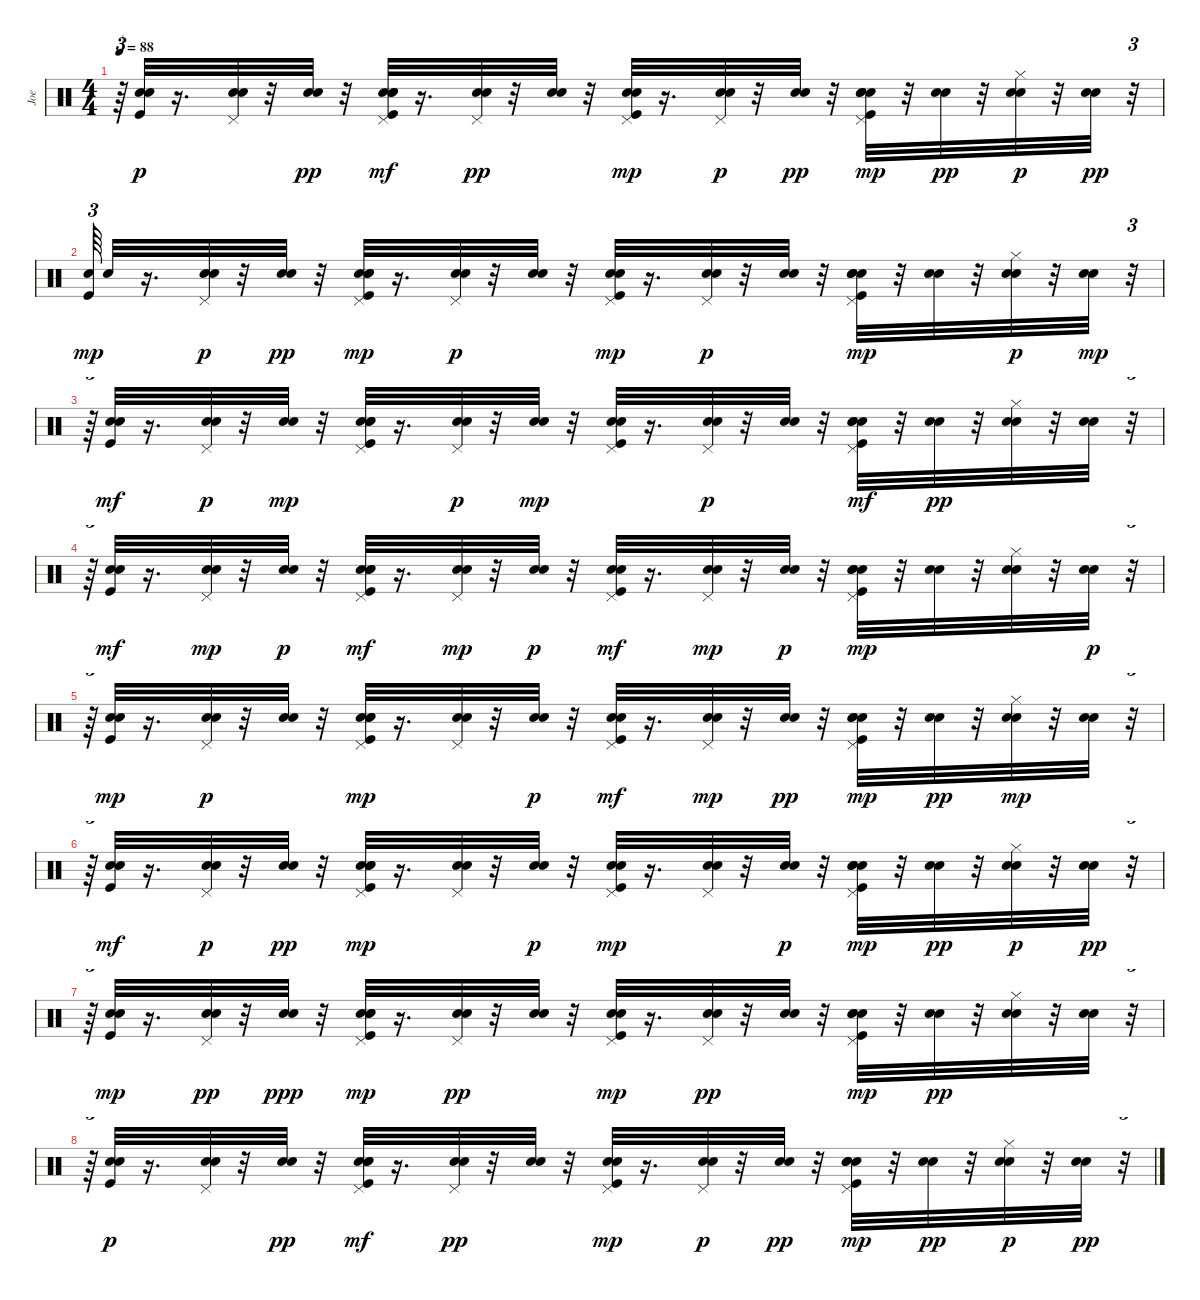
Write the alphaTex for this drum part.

\track ("Joe" "Joe") {instrument percussion}
\staff {score}
\articulation defaults
\ts (4 4)
\tempo 88
\clef neutral
\ks c
r.64{tu (3 2) dy pp} ("Kick (hit)" "Snare (hit) 2" "Snare (hit) 2").32{dy p} r.16{d} ("Pedal Hi-Hat (hit)" "Snare (hit) 2" "Snare (hit) 2").32 r.32 ("Snare (hit) 2" "Snare (hit) 2").32{dy pp} r.32 ("Pedal Hi-Hat (hit)" "Kick (hit)" "Electric Snare (hit)" "Snare (hit) 2" "Snare (hit) 2").32{dy mf} r.16{d} ("Pedal Hi-Hat (hit)" "Snare (hit) 2" "Snare (hit) 2").32{dy pp} r.32 ("Snare (hit) 2" "Snare (hit) 2").32 r.32 ("Kick (hit)" "Pedal Hi-Hat (hit)" "Snare (hit) 2" "Snare (hit) 2").32{dy mp} r.16{d} ("Pedal Hi-Hat (hit)" "Snare (hit) 2" "Snare (hit) 2").32{dy p} r.32 ("Snare (hit) 2" "Snare (hit) 2").32{dy pp} r.32 ("Kick (hit)" "Electric Snare (hit)" "Pedal Hi-Hat (hit)" "Snare (hit) 2" "Snare (hit) 2").32{dy mp} r.32 ("Snare (hit) 2" "Snare (hit) 2").32{dy pp} r.32 ("Hi-Hat (closed)" "Snare (hit) 2" "Snare (hit) 2").32{dy p} r.32 ("Snare (hit) 2" "Snare (hit) 2").32{dy pp} r.32{tu (3 2)} |
("Snare (hit) 2" "Kick (hit)").64{tu (3 2) dy mp} "Snare (hit) 2".32 r.16{d} ("Pedal Hi-Hat (hit)" "Snare (hit) 2" "Snare (hit) 2").32{dy p} r.32 ("Snare (hit) 2" "Snare (hit) 2").32{dy pp} r.32 ("Pedal Hi-Hat (hit)" "Kick (hit)" "Electric Snare (hit)" "Snare (hit) 2" "Snare (hit) 2").32{dy mp} r.16{d} ("Pedal Hi-Hat (hit)" "Snare (hit) 2" "Snare (hit) 2").32{dy p} r.32 ("Snare (hit) 2" "Snare (hit) 2").32 r.32 ("Kick (hit)" "Pedal Hi-Hat (hit)" "Snare (hit) 2" "Snare (hit) 2").32{dy mp} r.16{d} ("Pedal Hi-Hat (hit)" "Snare (hit) 2" "Snare (hit) 2").32{dy p} r.32 ("Snare (hit) 2" "Snare (hit) 2").32 r.32 ("Kick (hit)" "Electric Snare (hit)" "Pedal Hi-Hat (hit)" "Snare (hit) 2" "Snare (hit) 2").32{dy mp} r.32 ("Snare (hit) 2" "Snare (hit) 2").32 r.32 ("Hi-Hat (closed)" "Snare (hit) 2" "Snare (hit) 2").32{dy p} r.32 ("Snare (hit) 2" "Snare (hit) 2").32{dy mp} r.32{tu (3 2)} |
r.64{tu (3 2)} ("Kick (hit)" "Snare (hit) 2" "Snare (hit) 2").32{dy mf} r.16{d} ("Pedal Hi-Hat (hit)" "Snare (hit) 2" "Snare (hit) 2").32{dy p} r.32 ("Snare (hit) 2" "Snare (hit) 2").32{dy mp} r.32 ("Pedal Hi-Hat (hit)" "Kick (hit)" "Electric Snare (hit)" "Snare (hit) 2" "Snare (hit) 2").32 r.16{d} ("Pedal Hi-Hat (hit)" "Snare (hit) 2" "Snare (hit) 2").32{dy p} r.32 ("Snare (hit) 2" "Snare (hit) 2").32{dy mp} r.32 ("Kick (hit)" "Pedal Hi-Hat (hit)" "Snare (hit) 2" "Snare (hit) 2").32 r.16{d} ("Pedal Hi-Hat (hit)" "Snare (hit) 2" "Snare (hit) 2").32{dy p} r.32 ("Snare (hit) 2" "Snare (hit) 2").32 r.32 ("Kick (hit)" "Electric Snare (hit)" "Pedal Hi-Hat (hit)" "Snare (hit) 2" "Snare (hit) 2").32{dy mf} r.32 ("Snare (hit) 2" "Snare (hit) 2").32{dy pp} r.32 ("Hi-Hat (closed)" "Snare (hit) 2" "Snare (hit) 2").32 r.32 ("Snare (hit) 2" "Snare (hit) 2").32 r.32{tu (3 2)} |
r.64{tu (3 2)} ("Kick (hit)" "Snare (hit) 2" "Snare (hit) 2").32{dy mf} r.16{d} ("Pedal Hi-Hat (hit)" "Snare (hit) 2" "Snare (hit) 2").32{dy mp} r.32 ("Snare (hit) 2" "Snare (hit) 2").32{dy p} r.32 ("Pedal Hi-Hat (hit)" "Kick (hit)" "Electric Snare (hit)" "Snare (hit) 2" "Snare (hit) 2").32{dy mf} r.16{d} ("Pedal Hi-Hat (hit)" "Snare (hit) 2" "Snare (hit) 2").32{dy mp} r.32 ("Snare (hit) 2" "Snare (hit) 2").32{dy p} r.32 ("Kick (hit)" "Pedal Hi-Hat (hit)" "Snare (hit) 2" "Snare (hit) 2").32{dy mf} r.16{d} ("Pedal Hi-Hat (hit)" "Snare (hit) 2" "Snare (hit) 2").32{dy mp} r.32 ("Snare (hit) 2" "Snare (hit) 2").32{dy p} r.32 ("Kick (hit)" "Electric Snare (hit)" "Pedal Hi-Hat (hit)" "Snare (hit) 2" "Snare (hit) 2").32{dy mp} r.32 ("Snare (hit) 2" "Snare (hit) 2").32 r.32 ("Hi-Hat (closed)" "Snare (hit) 2" "Snare (hit) 2").32 r.32 ("Snare (hit) 2" "Snare (hit) 2").32{dy p} r.32{tu (3 2)} |
r.64{tu (3 2)} ("Kick (hit)" "Snare (hit) 2" "Snare (hit) 2").32{dy mp} r.16{d} ("Pedal Hi-Hat (hit)" "Snare (hit) 2" "Snare (hit) 2").32{dy p} r.32 ("Snare (hit) 2" "Snare (hit) 2").32 r.32 ("Pedal Hi-Hat (hit)" "Kick (hit)" "Electric Snare (hit)" "Snare (hit) 2" "Snare (hit) 2").32{dy mp} r.16{d} ("Pedal Hi-Hat (hit)" "Snare (hit) 2" "Snare (hit) 2").32 r.32 ("Snare (hit) 2" "Snare (hit) 2").32{dy p} r.32 ("Kick (hit)" "Pedal Hi-Hat (hit)" "Snare (hit) 2" "Snare (hit) 2").32{dy mf} r.16{d} ("Pedal Hi-Hat (hit)" "Snare (hit) 2" "Snare (hit) 2").32{dy mp} r.32 ("Snare (hit) 2" "Snare (hit) 2").32{dy pp} r.32 ("Kick (hit)" "Electric Snare (hit)" "Pedal Hi-Hat (hit)" "Snare (hit) 2" "Snare (hit) 2").32{dy mp} r.32 ("Snare (hit) 2" "Snare (hit) 2").32{dy pp} r.32 ("Hi-Hat (closed)" "Snare (hit) 2" "Snare (hit) 2").32{dy mp} r.32 ("Snare (hit) 2" "Snare (hit) 2").32 r.32{tu (3 2)} |
r.64{tu (3 2)} ("Kick (hit)" "Snare (hit) 2" "Snare (hit) 2").32{dy mf} r.16{d} ("Pedal Hi-Hat (hit)" "Snare (hit) 2" "Snare (hit) 2").32{dy p} r.32 ("Snare (hit) 2" "Snare (hit) 2").32{dy pp} r.32 ("Pedal Hi-Hat (hit)" "Kick (hit)" "Electric Snare (hit)" "Snare (hit) 2" "Snare (hit) 2").32{dy mp} r.16{d} ("Pedal Hi-Hat (hit)" "Snare (hit) 2" "Snare (hit) 2").32 r.32 ("Snare (hit) 2" "Snare (hit) 2").32{dy p} r.32 ("Kick (hit)" "Pedal Hi-Hat (hit)" "Snare (hit) 2" "Snare (hit) 2").32{dy mp} r.16{d} ("Pedal Hi-Hat (hit)" "Snare (hit) 2" "Snare (hit) 2").32 r.32 ("Snare (hit) 2" "Snare (hit) 2").32{dy p} r.32 ("Kick (hit)" "Electric Snare (hit)" "Pedal Hi-Hat (hit)" "Snare (hit) 2" "Snare (hit) 2").32{dy mp} r.32 ("Snare (hit) 2" "Snare (hit) 2").32{dy pp} r.32 ("Hi-Hat (closed)" "Snare (hit) 2" "Snare (hit) 2").32{dy p} r.32 ("Snare (hit) 2" "Snare (hit) 2").32{dy pp} r.32{tu (3 2)} |
r.64{tu (3 2)} ("Kick (hit)" "Snare (hit) 2" "Snare (hit) 2").32{dy mp} r.16{d} ("Pedal Hi-Hat (hit)" "Snare (hit) 2" "Snare (hit) 2").32{dy pp} r.32 ("Snare (hit) 2" "Snare (hit) 2").32{dy ppp} r.32 ("Pedal Hi-Hat (hit)" "Kick (hit)" "Electric Snare (hit)" "Snare (hit) 2" "Snare (hit) 2").32{dy mp} r.16{d} ("Pedal Hi-Hat (hit)" "Snare (hit) 2" "Snare (hit) 2").32{dy pp} r.32 ("Snare (hit) 2" "Snare (hit) 2").32 r.32 ("Kick (hit)" "Pedal Hi-Hat (hit)" "Snare (hit) 2" "Snare (hit) 2").32{dy mp} r.16{d} ("Pedal Hi-Hat (hit)" "Snare (hit) 2" "Snare (hit) 2").32{dy pp} r.32 ("Snare (hit) 2" "Snare (hit) 2").32 r.32 ("Kick (hit)" "Electric Snare (hit)" "Pedal Hi-Hat (hit)" "Snare (hit) 2" "Snare (hit) 2").32{dy mp} r.32 ("Snare (hit) 2" "Snare (hit) 2").32{dy pp} r.32 ("Hi-Hat (closed)" "Snare (hit) 2" "Snare (hit) 2").32 r.32 ("Snare (hit) 2" "Snare (hit) 2").32 r.32{tu (3 2)} |
r.64{tu (3 2)} ("Kick (hit)" "Snare (hit) 2" "Snare (hit) 2").32{dy p} r.16{d} ("Pedal Hi-Hat (hit)" "Snare (hit) 2" "Snare (hit) 2").32 r.32 ("Snare (hit) 2" "Snare (hit) 2").32{dy pp} r.32 ("Pedal Hi-Hat (hit)" "Kick (hit)" "Electric Snare (hit)" "Snare (hit) 2" "Snare (hit) 2").32{dy mf} r.16{d} ("Pedal Hi-Hat (hit)" "Snare (hit) 2" "Snare (hit) 2").32{dy pp} r.32 ("Snare (hit) 2" "Snare (hit) 2").32 r.32 ("Kick (hit)" "Pedal Hi-Hat (hit)" "Snare (hit) 2" "Snare (hit) 2").32{dy mp} r.16{d} ("Pedal Hi-Hat (hit)" "Snare (hit) 2" "Snare (hit) 2").32{dy p} r.32 ("Snare (hit) 2" "Snare (hit) 2").32{dy pp} r.32 ("Kick (hit)" "Electric Snare (hit)" "Pedal Hi-Hat (hit)" "Snare (hit) 2" "Snare (hit) 2").32{dy mp} r.32 ("Snare (hit) 2" "Snare (hit) 2").32{dy pp} r.32 ("Hi-Hat (closed)" "Snare (hit) 2" "Snare (hit) 2").32{dy p} r.32 ("Snare (hit) 2" "Snare (hit) 2").32{dy pp} r.32{tu (3 2)}
